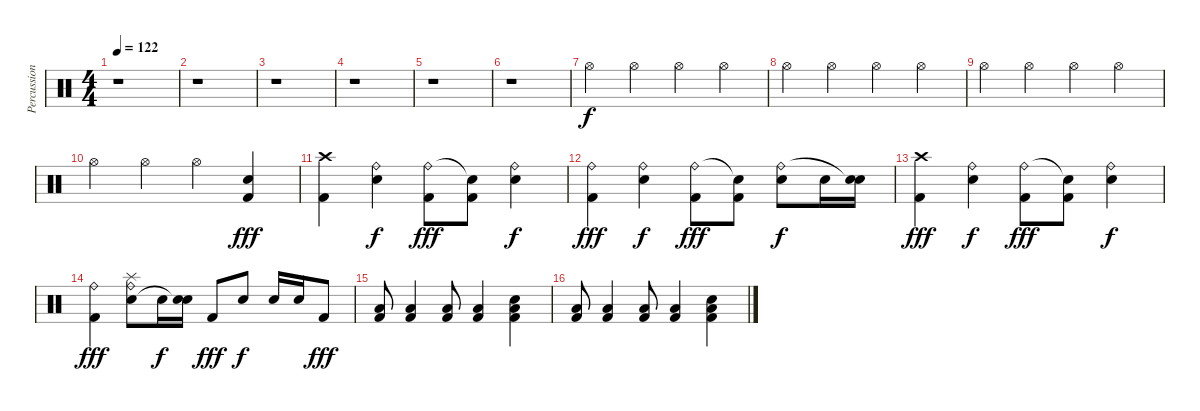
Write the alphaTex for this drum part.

\track ("Percussions" "Percussion") {instrument percussion}
\staff {score}
\articulation defaults
\ts (4 4)
\tempo 122
\clef neutral
\ks c
r.1{dy f} |
r.1 |
r.1 |
r.1 |
r.1 |
r.1 |
"Hi-Hat (open)".4 "Hi-Hat (open)".4 "Hi-Hat (open)".4 "Hi-Hat (open)".4 |
"Hi-Hat (open)".4 "Hi-Hat (open)".4 "Hi-Hat (open)".4 "Hi-Hat (open)".4 |
"Hi-Hat (open)".4 "Hi-Hat (open)".4 "Hi-Hat (open)".4 "Hi-Hat (open)".4 |
"Hi-Hat (open)".4 "Hi-Hat (open)".4 "Hi-Hat (open)".4 ("Snare (hit) 2" "Kick (hit) 2").4{dy fff} |
("Crash high (hit)" "Kick (hit) 2").4 ("Snare (hit) 2" "Ride (bell)").4{dy f} ("Kick (hit) 2" "Ride (bell)").8{dy fff} ("Kick (hit) 2" "Snare (hit)"{t}).8 ("Snare (hit) 2" "Ride (bell)").4{dy f} |
("Kick (hit) 2" "Ride (bell)").4{dy fff} ("Snare (hit) 2" "Ride (bell)").4{dy f} ("Kick (hit) 2" "Ride (bell)").8{dy fff} ("Kick (hit) 2" "Snare (hit)"{t}).8 ("Snare (hit) 2" "Ride (bell)").8{dy f} "Snare (hit) 2".16 ("Snare (hit) 2" "Snare (hit)"{t}).16 |
("Crash high (hit)" "Kick (hit) 2").4{dy fff} ("Snare (hit) 2" "Ride (bell)").4{dy f} ("Kick (hit) 2" "Ride (bell)").8{dy fff} ("Kick (hit) 2" "Snare (hit)"{t}).8 ("Snare (hit) 2" "Ride (bell)").4{dy f} |
("Kick (hit) 2" "Ride (bell)").4{dy fff} ("Splash (hit)" "Snare (hit) 2" "Ride (bell)").8 "Snare (hit) 2".16{dy f} ("Snare (hit) 2" "Snare (hit)"{t}).16 "Kick (hit) 2".8{dy fff} "Snare (hit) 2".8{dy f} "Snare (hit) 2".16 "Snare (hit) 2".16 "Kick (hit) 2".8{dy fff} |
("Low Tom (hit)" "Kick (hit) 2").8 ("Low Tom (hit)" "Kick (hit) 2").4 ("Low Tom (hit)" "Kick (hit) 2").8 ("Low Tom (hit)" "Kick (hit) 2").4 ("Snare (hit) 2" "Low Tom (hit)" "Kick (hit) 2").4 |
("Low Tom (hit)" "Kick (hit) 2").8 ("Low Tom (hit)" "Kick (hit) 2").4 ("Low Tom (hit)" "Kick (hit) 2").8 ("Low Tom (hit)" "Kick (hit) 2").4 ("Snare (hit) 2" "Low Tom (hit)" "Kick (hit) 2").4
